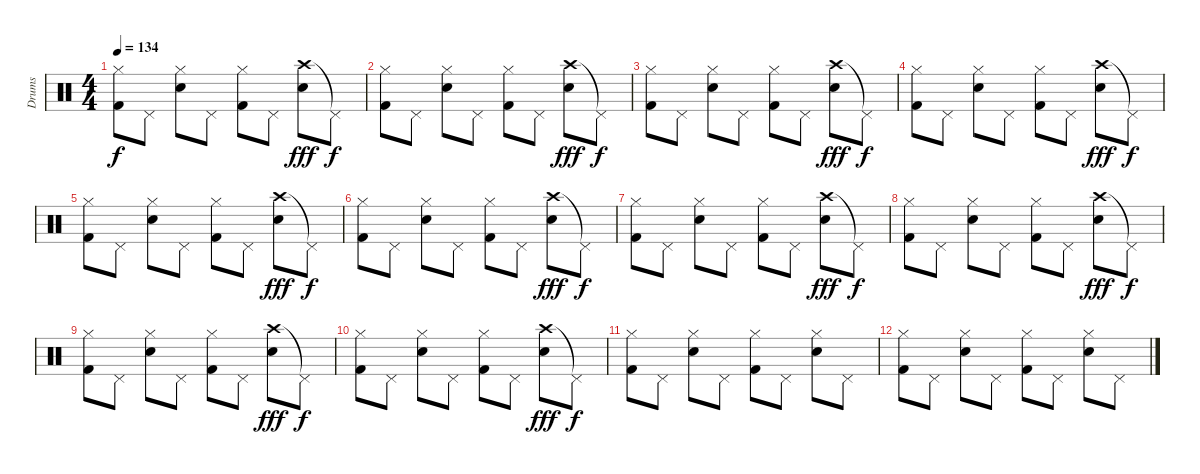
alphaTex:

\track ("Drums" "Drums") {instrument percussion}
\staff {score}
\articulation defaults
\ts (4 4)
\tempo 134
\clef neutral
\ks c
("Hi-Hat (closed)" "Kick (hit) 2").8{dy f} "Pedal Hi-Hat (hit)".8 ("Hi-Hat (closed)" "Snare (hit) 2").8 "Pedal Hi-Hat (hit)".8 ("Hi-Hat (closed)" "Kick (hit) 2").8 "Pedal Hi-Hat (hit)".8 ("Crash high (hit)" "Snare (hit) 2").8{dy fff} "Pedal Hi-Hat (hit)"{t}.8{dy f} |
("Hi-Hat (closed)" "Kick (hit) 2").8 "Pedal Hi-Hat (hit)".8 ("Hi-Hat (closed)" "Snare (hit) 2").8 "Pedal Hi-Hat (hit)".8 ("Hi-Hat (closed)" "Kick (hit) 2").8 "Pedal Hi-Hat (hit)".8 ("Crash high (hit)" "Snare (hit) 2").8{dy fff} "Pedal Hi-Hat (hit)"{t}.8{dy f} |
("Hi-Hat (closed)" "Kick (hit) 2").8 "Pedal Hi-Hat (hit)".8 ("Hi-Hat (closed)" "Snare (hit) 2").8 "Pedal Hi-Hat (hit)".8 ("Hi-Hat (closed)" "Kick (hit) 2").8 "Pedal Hi-Hat (hit)".8 ("Crash high (hit)" "Snare (hit) 2").8{dy fff} "Pedal Hi-Hat (hit)"{t}.8{dy f} |
("Hi-Hat (closed)" "Kick (hit) 2").8 "Pedal Hi-Hat (hit)".8 ("Hi-Hat (closed)" "Snare (hit) 2").8 "Pedal Hi-Hat (hit)".8 ("Hi-Hat (closed)" "Kick (hit) 2").8 "Pedal Hi-Hat (hit)".8 ("Crash high (hit)" "Snare (hit) 2").8{dy fff} "Pedal Hi-Hat (hit)"{t}.8{dy f} |
("Hi-Hat (closed)" "Kick (hit) 2").8 "Pedal Hi-Hat (hit)".8 ("Hi-Hat (closed)" "Snare (hit) 2").8 "Pedal Hi-Hat (hit)".8 ("Hi-Hat (closed)" "Kick (hit) 2").8 "Pedal Hi-Hat (hit)".8 ("Crash high (hit)" "Snare (hit) 2").8{dy fff} "Pedal Hi-Hat (hit)"{t}.8{dy f} |
("Hi-Hat (closed)" "Kick (hit) 2").8 "Pedal Hi-Hat (hit)".8 ("Hi-Hat (closed)" "Snare (hit) 2").8 "Pedal Hi-Hat (hit)".8 ("Hi-Hat (closed)" "Kick (hit) 2").8 "Pedal Hi-Hat (hit)".8 ("Crash high (hit)" "Snare (hit) 2").8{dy fff} "Pedal Hi-Hat (hit)"{t}.8{dy f} |
("Hi-Hat (closed)" "Kick (hit) 2").8 "Pedal Hi-Hat (hit)".8 ("Hi-Hat (closed)" "Snare (hit) 2").8 "Pedal Hi-Hat (hit)".8 ("Hi-Hat (closed)" "Kick (hit) 2").8 "Pedal Hi-Hat (hit)".8 ("Crash high (hit)" "Snare (hit) 2").8{dy fff} "Pedal Hi-Hat (hit)"{t}.8{dy f} |
("Hi-Hat (closed)" "Kick (hit) 2").8 "Pedal Hi-Hat (hit)".8 ("Hi-Hat (closed)" "Snare (hit) 2").8 "Pedal Hi-Hat (hit)".8 ("Hi-Hat (closed)" "Kick (hit) 2").8 "Pedal Hi-Hat (hit)".8 ("Crash high (hit)" "Snare (hit) 2").8{dy fff} "Pedal Hi-Hat (hit)"{t}.8{dy f} |
("Hi-Hat (closed)" "Kick (hit) 2").8 "Pedal Hi-Hat (hit)".8 ("Hi-Hat (closed)" "Snare (hit) 2").8 "Pedal Hi-Hat (hit)".8 ("Hi-Hat (closed)" "Kick (hit) 2").8 "Pedal Hi-Hat (hit)".8 ("Crash high (hit)" "Snare (hit) 2").8{dy fff} "Pedal Hi-Hat (hit)"{t}.8{dy f} |
("Hi-Hat (closed)" "Kick (hit) 2").8 "Pedal Hi-Hat (hit)".8 ("Hi-Hat (closed)" "Snare (hit) 2").8 "Pedal Hi-Hat (hit)".8 ("Hi-Hat (closed)" "Kick (hit) 2").8 "Pedal Hi-Hat (hit)".8 ("Crash high (hit)" "Snare (hit) 2").8{dy fff} "Pedal Hi-Hat (hit)"{t}.8{dy f} |
("Hi-Hat (closed)" "Kick (hit) 2").8{volume 0} "Pedal Hi-Hat (hit)".8 ("Hi-Hat (closed)" "Snare (hit) 2").8 "Pedal Hi-Hat (hit)".8 ("Hi-Hat (closed)" "Kick (hit) 2").8 "Pedal Hi-Hat (hit)".8 ("Hi-Hat (closed)" "Snare (hit) 2").8 "Pedal Hi-Hat (hit)".8 |
("Hi-Hat (closed)" "Kick (hit) 2").8 "Pedal Hi-Hat (hit)".8 ("Hi-Hat (closed)" "Snare (hit) 2").8 "Pedal Hi-Hat (hit)".8 ("Hi-Hat (closed)" "Kick (hit) 2").8 "Pedal Hi-Hat (hit)".8 ("Hi-Hat (closed)" "Snare (hit) 2").8 "Pedal Hi-Hat (hit)".8
